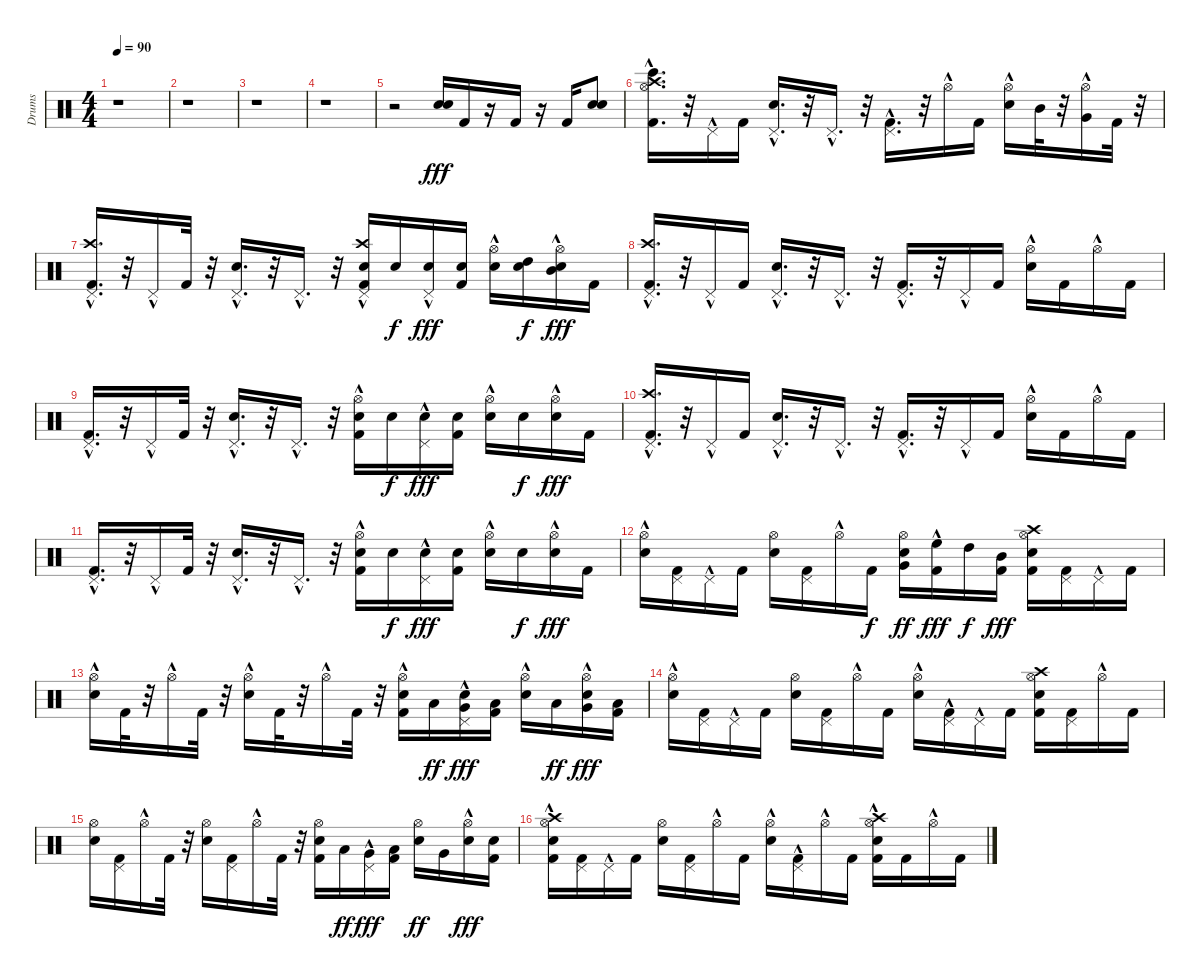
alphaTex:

\track ("Drums" "Drums") {instrument percussion}
\staff {score}
\articulation defaults
\ts (4 4)
\tempo 90
\clef neutral
\ks c
r.1{dy fff} |
r.1 |
r.1 |
r.1 |
r.2 ("Electric Snare (hit)" "Electric Snare (hit)").16 "Kick (hit) 2".16 r.16 "Kick (hit) 2".16 r.16 "Kick (hit) 2".16 ("Electric Snare (hit)" "Electric Snare (hit)").8 |
("Bongo High (hit)" "Crash high (hit)" "Kick (hit) 2"{hac} "Hi-Hat (open)"{hac}).16{d} r.32 "Pedal Hi-Hat (hit)"{hac}.16 "Kick (hit) 2".16 ("Electric Snare (hit)"{hac} "Pedal Hi-Hat (hit)"{hac}).16{d} r.32 "Pedal Hi-Hat (hit)"{hac}.16{d} r.32 ("Kick (hit) 2"{hac} "Pedal Hi-Hat (hit)"{hac}).16{d} r.32 "Hi-Hat (open)"{hac}.16 "Kick (hit) 2".16 ("Electric Snare (hit)" "Hi-Hat (open)"{hac}).16 "Mid Tom (hit)".32 r.32 ("Hi-Hat (open)"{hac} "Very Low Tom (hit)").16 "Kick (hit) 2".32 r.32 |
("Crash high (hit)" "Kick (hit) 2" "Pedal Hi-Hat (hit)"{hac}).16{d} r.32 "Pedal Hi-Hat (hit)"{hac}.16 "Kick (hit) 2".32 r.32 ("Electric Snare (hit)" "Pedal Hi-Hat (hit)"{hac}).16{d} r.32 "Pedal Hi-Hat (hit)"{hac}.16{d} r.32 ("Electric Snare (hit)" "Crash high (hit)" "Kick (hit) 2" "Pedal Hi-Hat (hit)"{hac}).16 "Electric Snare (hit)".16{dy f} ("Electric Snare (hit)" "Pedal Hi-Hat (hit)"{hac}).16{dy fff} ("Electric Snare (hit)" "Kick (hit) 2").16 ("Electric Snare (hit)" "Hi-Hat (open)"{hac}).16 ("High Tom (hit)" "Electric Snare (hit)").16{dy f} ("Mid Tom (hit)" "Electric Snare (hit)" "Hi-Hat (open)"{hac}).16{dy fff} "Kick (hit) 2".16 |
("Crash high (hit)" "Kick (hit) 2" "Pedal Hi-Hat (hit)"{hac}).16{d} r.32 "Pedal Hi-Hat (hit)"{hac}.16 "Kick (hit) 2".16 ("Electric Snare (hit)" "Pedal Hi-Hat (hit)"{hac}).16{d} r.32 "Pedal Hi-Hat (hit)"{hac}.16{d} r.32 ("Pedal Hi-Hat (hit)"{hac} "Kick (hit) 2"{hac}).16{d} r.32 "Pedal Hi-Hat (hit)"{hac}.16 "Kick (hit) 2".16 ("Hi-Hat (open)"{hac} "Electric Snare (hit)").16 "Kick (hit) 2".16 "Hi-Hat (open)"{hac}.16 "Kick (hit) 2".16 |
("Pedal Hi-Hat (hit)"{hac} "Kick (hit) 2").16{d} r.32 "Pedal Hi-Hat (hit)"{hac}.16 "Kick (hit) 2".32 r.32 ("Pedal Hi-Hat (hit)"{hac} "Electric Snare (hit)").16{d} r.32 "Pedal Hi-Hat (hit)"{hac}.16{d} r.32 ("Hi-Hat (open)"{hac} "Electric Snare (hit)" "Kick (hit) 2").16 "Electric Snare (hit)".16{dy f} ("Pedal Hi-Hat (hit)"{hac} "Electric Snare (hit)").16{dy fff} ("Electric Snare (hit)" "Kick (hit) 2").16 ("Hi-Hat (open)"{hac} "Electric Snare (hit)").16 "Electric Snare (hit)".16{dy f} ("Hi-Hat (open)"{hac} "Electric Snare (hit)").16{dy fff} "Kick (hit) 2".16 |
("Crash high (hit)" "Kick (hit) 2" "Pedal Hi-Hat (hit)"{hac}).16{d} r.32 "Pedal Hi-Hat (hit)"{hac}.16 "Kick (hit) 2".16 ("Electric Snare (hit)" "Pedal Hi-Hat (hit)"{hac}).16{d} r.32 "Pedal Hi-Hat (hit)"{hac}.16{d} r.32 ("Pedal Hi-Hat (hit)"{hac} "Kick (hit) 2"{hac}).16{d} r.32 "Pedal Hi-Hat (hit)"{hac}.16 "Kick (hit) 2".16 ("Hi-Hat (open)"{hac} "Electric Snare (hit)").16 "Kick (hit) 2".16 "Hi-Hat (open)"{hac}.16 "Kick (hit) 2".16 |
("Pedal Hi-Hat (hit)"{hac} "Kick (hit) 2").16{d} r.32 "Pedal Hi-Hat (hit)"{hac}.16 "Kick (hit) 2".32 r.32 ("Pedal Hi-Hat (hit)"{hac} "Electric Snare (hit)").16{d} r.32 "Pedal Hi-Hat (hit)"{hac}.16{d} r.32 ("Hi-Hat (open)"{hac} "Electric Snare (hit)" "Kick (hit) 2").16 "Electric Snare (hit)".16{dy f} ("Pedal Hi-Hat (hit)"{hac} "Electric Snare (hit)").16{dy fff} ("Electric Snare (hit)" "Kick (hit) 2").16 ("Hi-Hat (open)"{hac} "Electric Snare (hit)").16 "Electric Snare (hit)".16{dy f} ("Hi-Hat (open)"{hac} "Electric Snare (hit)").16{dy fff} "Kick (hit) 2".16 |
("Hi-Hat (open)" "Electric Snare (hit)"{hac}).16 ("Kick (hit) 2" "Pedal Hi-Hat (hit)").16 "Pedal Hi-Hat (hit)"{hac}.16 "Kick (hit) 2".16 ("Electric Snare (hit)" "Hi-Hat (open)").16 ("Kick (hit) 2" "Pedal Hi-Hat (hit)").16 "Hi-Hat (open)"{hac}.16 "Kick (hit) 2".16{dy f} ("Electric Snare (hit)" "Hi-Hat (open)" "Very Low Tom (hit)").16{dy ff} ("Kick (hit) 2"{hac} "High Floor Tom (hit)").16{dy fff} "High Tom (hit)".16{dy f} ("Kick (hit) 2" "Mid Tom (hit)").16{dy fff} ("Kick (hit) 2" "Crash high (hit)" "Hi-Hat (open)" "Electric Snare (hit)").16 ("Kick (hit) 2" "Pedal Hi-Hat (hit)").16 "Pedal Hi-Hat (hit)"{hac}.16 "Kick (hit) 2".16 |
("Hi-Hat (open)"{hac} "Electric Snare (hit)").16 "Kick (hit) 2".32 r.32 "Hi-Hat (open)"{hac}.16 "Kick (hit) 2".32 r.32 ("Hi-Hat (open)"{hac} "Electric Snare (hit)").16 "Kick (hit) 2".32 r.32 "Hi-Hat (open)"{hac}.16 "Kick (hit) 2".32 r.32 ("Hi-Hat (open)"{hac} "Electric Snare (hit)" "Kick (hit) 2").16 "Low Tom (hit)".16{dy ff} ("Electric Snare (hit)" "Pedal Hi-Hat (hit)"{hac} "Very Low Tom (hit)").16{dy fff} ("Low Floor Tom (hit)" "Kick (hit) 2").16 ("Hi-Hat (open)"{hac} "Electric Snare (hit)").16 "Low Tom (hit)".16{dy ff} ("Electric Snare (hit)" "Hi-Hat (open)"{hac} "Very Low Tom (hit)").16{dy fff} ("Low Floor Tom (hit)" "Kick (hit) 2").16 |
("Hi-Hat (open)" "Electric Snare (hit)"{hac}).16 ("Pedal Hi-Hat (hit)" "Kick (hit) 2").16 "Pedal Hi-Hat (hit)"{hac}.16 "Kick (hit) 2".16 ("Electric Snare (hit)" "Hi-Hat (open)").16 ("Pedal Hi-Hat (hit)" "Kick (hit) 2").16 "Hi-Hat (open)"{hac}.16 "Kick (hit) 2".16 ("Electric Snare (hit)"{hac} "Hi-Hat (open)").16 ("Pedal Hi-Hat (hit)" "Kick (hit) 2"{hac}).16 "Pedal Hi-Hat (hit)"{hac}.16 "Kick (hit) 2".16 ("Kick (hit) 2" "Crash high (hit)" "Hi-Hat (open)" "Electric Snare (hit)").16 ("Pedal Hi-Hat (hit)" "Kick (hit) 2").16 "Hi-Hat (open)"{hac}.16 "Kick (hit) 2".16 |
("Hi-Hat (open)" "Electric Snare (hit)").16 ("Pedal Hi-Hat (hit)" "Kick (hit) 2").16 "Hi-Hat (open)"{hac}.16 "Kick (hit) 2".32 r.32 ("Hi-Hat (open)" "Electric Snare (hit)").16 ("Pedal Hi-Hat (hit)" "Kick (hit) 2").16 "Hi-Hat (open)"{hac}.16 "Kick (hit) 2".32 r.32 ("Hi-Hat (open)" "Electric Snare (hit)" "Kick (hit) 2").16 "Low Tom (hit)".16{dy ff} ("Pedal Hi-Hat (hit)"{hac} "Very Low Tom (hit)").16{dy fff} ("Low Floor Tom (hit)" "Kick (hit) 2").16 ("Hi-Hat (open)" "Electric Snare (hit)").16{dy ff} "Very Low Tom (hit)".16 ("Hi-Hat (open)"{hac} "Electric Snare (hit)").16{dy fff} ("Electric Snare (hit)" "Kick (hit) 2").16 |
("Kick (hit) 2" "Crash high (hit)" "Hi-Hat (open)" "Electric Snare (hit)"{hac}).16 ("Pedal Hi-Hat (hit)" "Kick (hit) 2").16 "Pedal Hi-Hat (hit)"{hac}.16 "Kick (hit) 2".16 ("Electric Snare (hit)" "Hi-Hat (open)").16 ("Pedal Hi-Hat (hit)" "Kick (hit) 2").16 "Hi-Hat (open)"{hac}.16 "Kick (hit) 2".16 ("Electric Snare (hit)"{hac} "Hi-Hat (open)").16 ("Pedal Hi-Hat (hit)" "Kick (hit) 2"{hac}).16 "Hi-Hat (open)"{hac}.16 "Kick (hit) 2".16 ("Kick (hit) 2" "Crash high (hit)" "Hi-Hat (open)"{hac} "Electric Snare (hit)").16 "Kick (hit) 2".16 "Hi-Hat (open)"{hac}.16 "Kick (hit) 2".16
